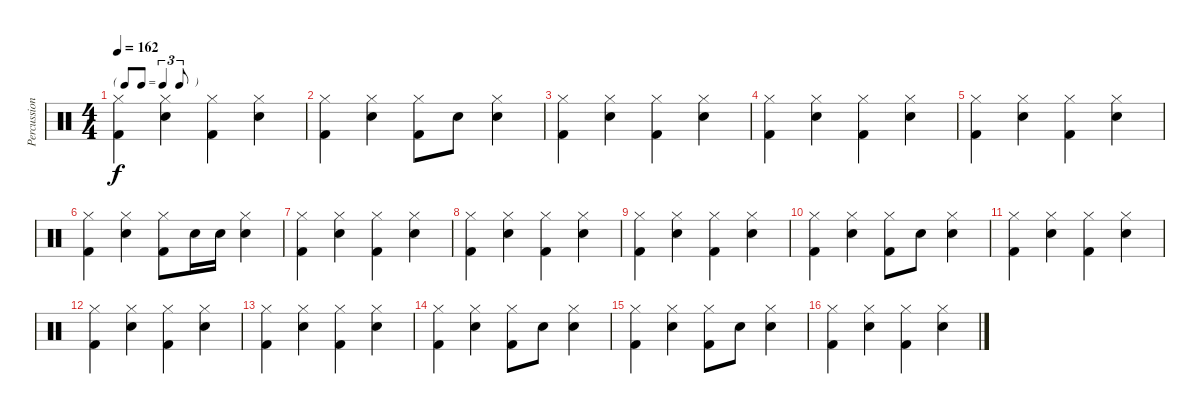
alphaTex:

\track ("Percussion" "Percussion") {instrument percussion}
\staff {score}
\articulation defaults
\ts (4 4)
\tf triplet8th
\tempo 162
\clef neutral
\ks c
("Kick (hit) 2" "Hi-Hat (closed)").4{dy f} ("Snare (hit) 2" "Hi-Hat (closed)").4 ("Kick (hit) 2" "Hi-Hat (closed)").4 ("Snare (hit) 2" "Hi-Hat (closed)").4 |
("Kick (hit) 2" "Hi-Hat (closed)").4 ("Snare (hit) 2" "Hi-Hat (closed)").4 ("Kick (hit) 2" "Hi-Hat (closed)").8 "Snare (hit) 2".8 ("Snare (hit) 2" "Hi-Hat (closed)").4 |
("Kick (hit) 2" "Hi-Hat (closed)").4 ("Snare (hit) 2" "Hi-Hat (closed)").4 ("Kick (hit) 2" "Hi-Hat (closed)").4 ("Snare (hit) 2" "Hi-Hat (closed)").4 |
("Kick (hit) 2" "Hi-Hat (closed)").4 ("Snare (hit) 2" "Hi-Hat (closed)").4 ("Kick (hit) 2" "Hi-Hat (closed)").4 ("Snare (hit) 2" "Hi-Hat (closed)").4 |
("Kick (hit) 2" "Hi-Hat (closed)").4 ("Snare (hit) 2" "Hi-Hat (closed)").4 ("Kick (hit) 2" "Hi-Hat (closed)").4 ("Snare (hit) 2" "Hi-Hat (closed)").4 |
("Kick (hit) 2" "Hi-Hat (closed)").4 ("Snare (hit) 2" "Hi-Hat (closed)").4 ("Kick (hit) 2" "Hi-Hat (closed)").8 "Snare (hit) 2".16 "Snare (hit) 2".16 ("Snare (hit) 2" "Hi-Hat (closed)").4 |
("Kick (hit) 2" "Hi-Hat (closed)").4 ("Snare (hit) 2" "Hi-Hat (closed)").4 ("Kick (hit) 2" "Hi-Hat (closed)").4 ("Snare (hit) 2" "Hi-Hat (closed)").4 |
("Kick (hit) 2" "Hi-Hat (closed)").4 ("Snare (hit) 2" "Hi-Hat (closed)").4 ("Kick (hit) 2" "Hi-Hat (closed)").4 ("Snare (hit) 2" "Hi-Hat (closed)").4 |
("Kick (hit) 2" "Hi-Hat (closed)").4 ("Snare (hit) 2" "Hi-Hat (closed)").4 ("Kick (hit) 2" "Hi-Hat (closed)").4 ("Snare (hit) 2" "Hi-Hat (closed)").4 |
("Kick (hit) 2" "Hi-Hat (closed)").4 ("Snare (hit) 2" "Hi-Hat (closed)").4 ("Kick (hit) 2" "Hi-Hat (closed)").8 "Snare (hit) 2".8 ("Snare (hit) 2" "Hi-Hat (closed)").4 |
("Kick (hit) 2" "Hi-Hat (closed)").4 ("Snare (hit) 2" "Hi-Hat (closed)").4 ("Kick (hit) 2" "Hi-Hat (closed)").4 ("Snare (hit) 2" "Hi-Hat (closed)").4 |
("Kick (hit) 2" "Hi-Hat (closed)").4 ("Snare (hit) 2" "Hi-Hat (closed)").4 ("Kick (hit) 2" "Hi-Hat (closed)").4 ("Snare (hit) 2" "Hi-Hat (closed)").4 |
("Kick (hit) 2" "Hi-Hat (closed)").4 ("Snare (hit) 2" "Hi-Hat (closed)").4 ("Kick (hit) 2" "Hi-Hat (closed)").4 ("Snare (hit) 2" "Hi-Hat (closed)").4 |
("Kick (hit) 2" "Hi-Hat (closed)").4 ("Snare (hit) 2" "Hi-Hat (closed)").4 ("Kick (hit) 2" "Hi-Hat (closed)").8 "Snare (hit) 2".8 ("Snare (hit) 2" "Hi-Hat (closed)").4 |
("Kick (hit) 2" "Hi-Hat (closed)").4 ("Snare (hit) 2" "Hi-Hat (closed)").4 ("Kick (hit) 2" "Hi-Hat (closed)").8 "Snare (hit) 2".8 ("Snare (hit) 2" "Hi-Hat (closed)").4 |
("Kick (hit) 2" "Hi-Hat (closed)").4 ("Snare (hit) 2" "Hi-Hat (closed)").4 ("Kick (hit) 2" "Hi-Hat (closed)").4 ("Snare (hit) 2" "Hi-Hat (closed)").4
